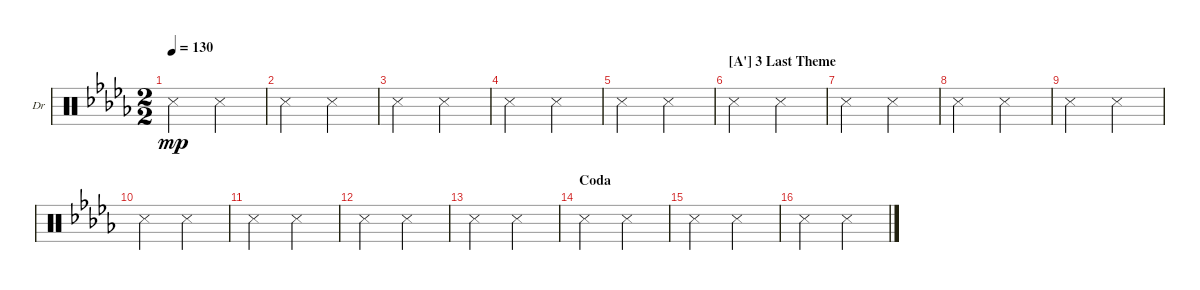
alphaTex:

\defaultSystemsLayout 4
\bracketExtendMode nobrackets
\firstSystemTrackNameOrientation horizontal
\otherSystemsTrackNameOrientation horizontal
\chordDiagramsInScore
\track ("Drums" "Dr") {instrument percussion}
\staff {score}
\articulation defaults
\ts (2 2)
\tempo 130
\clef neutral
\ks db "Snare (side stick) 3".2{dy mp} "Snare (side stick) 3".2
|
"Snare (side stick) 3".2 "Snare (side stick) 3".2 |
"Snare (side stick) 3".2 "Snare (side stick) 3".2 |
"Snare (side stick) 3".2 "Snare (side stick) 3".2 |
"Snare (side stick) 3".2 "Snare (side stick) 3".2 |
\section ("A'" "3 Last Theme")
"Snare (side stick) 3".2 "Snare (side stick) 3".2 |
"Snare (side stick) 3".2 "Snare (side stick) 3".2 |
"Snare (side stick) 3".2 "Snare (side stick) 3".2 |
"Snare (side stick) 3".2 "Snare (side stick) 3".2 |
"Snare (side stick) 3".2 "Snare (side stick) 3".2 |
"Snare (side stick) 3".2 "Snare (side stick) 3".2 |
"Snare (side stick) 3".2 "Snare (side stick) 3".2 |
"Snare (side stick) 3".2 "Snare (side stick) 3".2 |
\section ("" "Coda")
"Snare (side stick) 3".2 "Snare (side stick) 3".2 |
"Snare (side stick) 3".2 "Snare (side stick) 3".2 |
"Snare (side stick) 3".2 "Snare (side stick) 3".2
